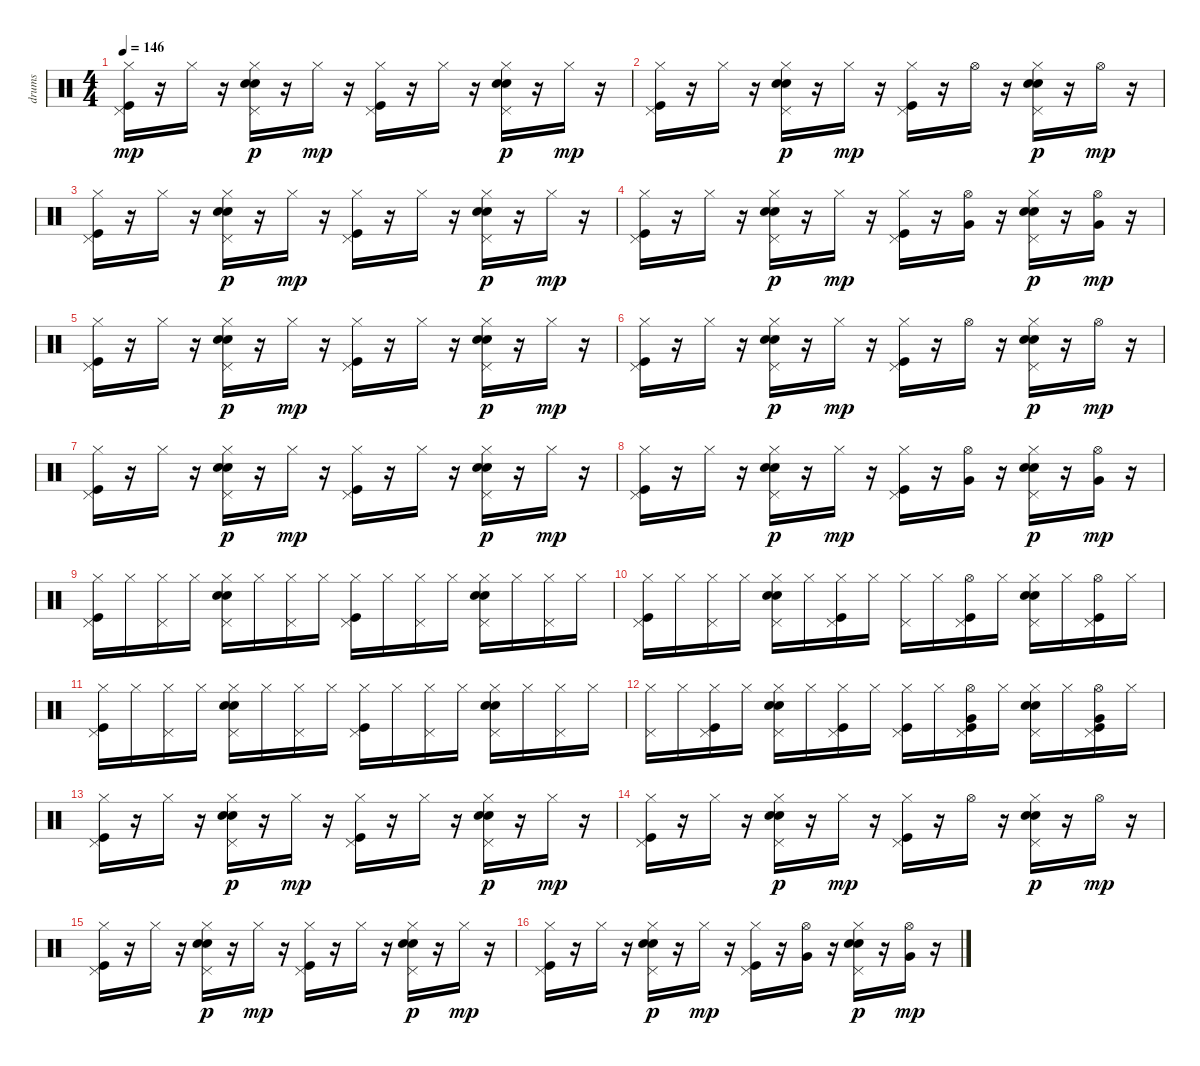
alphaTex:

\track ("drums" "drums") {instrument percussion}
\staff {score}
\articulation defaults
\ts (4 4)
\tempo 146
\clef neutral
\ks c
("Kick (hit)" "Pedal Hi-Hat (hit)" "Hi-Hat (closed)").16{dy mp} r.16 "Hi-Hat (closed)".16 r.16 ("Pedal Hi-Hat (hit)" "Snare (hit) 2" "Hi-Hat (closed)" "Electric Snare (hit)").16{dy p} r.16 "Hi-Hat (closed)".16{dy mp} r.16 ("Kick (hit)" "Pedal Hi-Hat (hit)" "Hi-Hat (closed)").16 r.16 "Hi-Hat (closed)".16 r.16 ("Pedal Hi-Hat (hit)" "Snare (hit) 2" "Hi-Hat (closed)" "Electric Snare (hit)").16{dy p} r.16 "Hi-Hat (closed)".16{dy mp} r.16 |
("Kick (hit)" "Pedal Hi-Hat (hit)" "Hi-Hat (closed)").16 r.16 "Hi-Hat (closed)".16 r.16 ("Pedal Hi-Hat (hit)" "Snare (hit) 2" "Hi-Hat (closed)" "Electric Snare (hit)").16{dy p} r.16 "Hi-Hat (closed)".16{dy mp} r.16 ("Kick (hit)" "Pedal Hi-Hat (hit)" "Hi-Hat (closed)").16 r.16 "Hi-Hat (open)".16 r.16 ("Pedal Hi-Hat (hit)" "Snare (hit) 2" "Hi-Hat (closed)" "Electric Snare (hit)").16{dy p} r.16 "Hi-Hat (open)".16{dy mp} r.16 |
("Kick (hit)" "Pedal Hi-Hat (hit)" "Hi-Hat (closed)").16 r.16 "Hi-Hat (closed)".16 r.16 ("Pedal Hi-Hat (hit)" "Snare (hit) 2" "Hi-Hat (closed)" "Electric Snare (hit)").16{dy p} r.16 "Hi-Hat (closed)".16{dy mp} r.16 ("Kick (hit)" "Pedal Hi-Hat (hit)" "Hi-Hat (closed)").16 r.16 "Hi-Hat (closed)".16 r.16 ("Pedal Hi-Hat (hit)" "Snare (hit) 2" "Hi-Hat (closed)" "Electric Snare (hit)").16{dy p} r.16 "Hi-Hat (closed)".16{dy mp} r.16 |
("Kick (hit)" "Pedal Hi-Hat (hit)" "Hi-Hat (closed)").16 r.16 "Hi-Hat (closed)".16 r.16 ("Pedal Hi-Hat (hit)" "Snare (hit) 2" "Hi-Hat (closed)" "Electric Snare (hit)").16{dy p} r.16 "Hi-Hat (closed)".16{dy mp} r.16 ("Kick (hit)" "Pedal Hi-Hat (hit)" "Hi-Hat (closed)").16 r.16 ("Hi-Hat (open)" "Very Low Tom (hit)").16 r.16 ("Pedal Hi-Hat (hit)" "Snare (hit) 2" "Hi-Hat (closed)" "Electric Snare (hit)").16{dy p} r.16 ("Hi-Hat (open)" "Very Low Tom (hit)").16{dy mp} r.16 |
("Kick (hit)" "Pedal Hi-Hat (hit)" "Hi-Hat (closed)").16 r.16 "Hi-Hat (closed)".16 r.16 ("Pedal Hi-Hat (hit)" "Snare (hit) 2" "Hi-Hat (closed)" "Electric Snare (hit)").16{dy p} r.16 "Hi-Hat (closed)".16{dy mp} r.16 ("Kick (hit)" "Pedal Hi-Hat (hit)" "Hi-Hat (closed)").16 r.16 "Hi-Hat (closed)".16 r.16 ("Pedal Hi-Hat (hit)" "Snare (hit) 2" "Hi-Hat (closed)" "Electric Snare (hit)").16{dy p} r.16 "Hi-Hat (closed)".16{dy mp} r.16 |
("Kick (hit)" "Pedal Hi-Hat (hit)" "Hi-Hat (closed)").16 r.16 "Hi-Hat (closed)".16 r.16 ("Pedal Hi-Hat (hit)" "Snare (hit) 2" "Hi-Hat (closed)" "Electric Snare (hit)").16{dy p} r.16 "Hi-Hat (closed)".16{dy mp} r.16 ("Kick (hit)" "Pedal Hi-Hat (hit)" "Hi-Hat (closed)").16 r.16 "Hi-Hat (open)".16 r.16 ("Pedal Hi-Hat (hit)" "Snare (hit) 2" "Hi-Hat (closed)" "Electric Snare (hit)").16{dy p} r.16 "Hi-Hat (open)".16{dy mp} r.16 |
("Kick (hit)" "Pedal Hi-Hat (hit)" "Hi-Hat (closed)").16 r.16 "Hi-Hat (closed)".16 r.16 ("Pedal Hi-Hat (hit)" "Snare (hit) 2" "Hi-Hat (closed)" "Electric Snare (hit)").16{dy p} r.16 "Hi-Hat (closed)".16{dy mp} r.16 ("Kick (hit)" "Pedal Hi-Hat (hit)" "Hi-Hat (closed)").16 r.16 "Hi-Hat (closed)".16 r.16 ("Pedal Hi-Hat (hit)" "Snare (hit) 2" "Hi-Hat (closed)" "Electric Snare (hit)").16{dy p} r.16 "Hi-Hat (closed)".16{dy mp} r.16 |
("Kick (hit)" "Pedal Hi-Hat (hit)" "Hi-Hat (closed)").16 r.16 "Hi-Hat (closed)".16 r.16 ("Pedal Hi-Hat (hit)" "Snare (hit) 2" "Hi-Hat (closed)" "Electric Snare (hit)").16{dy p} r.16 "Hi-Hat (closed)".16{dy mp} r.16 ("Kick (hit)" "Pedal Hi-Hat (hit)" "Hi-Hat (closed)").16 r.16 ("Hi-Hat (open)" "Very Low Tom (hit)").16 r.16 ("Pedal Hi-Hat (hit)" "Snare (hit) 2" "Hi-Hat (closed)" "Electric Snare (hit)").16{dy p} r.16 ("Hi-Hat (open)" "Very Low Tom (hit)").16{dy mp} r.16 |
("Kick (hit)" "Pedal Hi-Hat (hit)" "Hi-Hat (closed)").16 "Hi-Hat (closed)".16 ("Hi-Hat (closed)" "Pedal Hi-Hat (hit)").16 "Hi-Hat (closed)".16 ("Snare (hit) 2" "Hi-Hat (closed)" "Electric Snare (hit)" "Pedal Hi-Hat (hit)").16 "Hi-Hat (closed)".16 ("Hi-Hat (closed)" "Pedal Hi-Hat (hit)").16 "Hi-Hat (closed)".16 ("Kick (hit)" "Hi-Hat (closed)" "Pedal Hi-Hat (hit)").16 "Hi-Hat (closed)".16 ("Hi-Hat (closed)" "Pedal Hi-Hat (hit)").16 "Hi-Hat (closed)".16 ("Snare (hit) 2" "Hi-Hat (closed)" "Electric Snare (hit)" "Pedal Hi-Hat (hit)").16 "Hi-Hat (closed)".16 ("Hi-Hat (closed)" "Pedal Hi-Hat (hit)").16 "Hi-Hat (closed)".16 |
("Kick (hit)" "Hi-Hat (closed)" "Pedal Hi-Hat (hit)").16 "Hi-Hat (closed)".16 ("Hi-Hat (closed)" "Pedal Hi-Hat (hit)").16 "Hi-Hat (closed)".16 ("Snare (hit) 2" "Hi-Hat (closed)" "Electric Snare (hit)" "Pedal Hi-Hat (hit)").16 "Hi-Hat (closed)".16 ("Hi-Hat (closed)" "Pedal Hi-Hat (hit)" "Kick (hit)").16 "Hi-Hat (closed)".16 ("Hi-Hat (closed)" "Pedal Hi-Hat (hit)").16 "Hi-Hat (closed)".16 ("Hi-Hat (open)" "Pedal Hi-Hat (hit)" "Kick (hit)").16 "Hi-Hat (closed)".16 ("Snare (hit) 2" "Hi-Hat (closed)" "Electric Snare (hit)" "Pedal Hi-Hat (hit)").16 "Hi-Hat (closed)".16 ("Hi-Hat (open)" "Pedal Hi-Hat (hit)" "Kick (hit)").16 "Hi-Hat (closed)".16 |
("Kick (hit)" "Hi-Hat (closed)" "Pedal Hi-Hat (hit)").16 "Hi-Hat (closed)".16 ("Hi-Hat (closed)" "Pedal Hi-Hat (hit)").16 "Hi-Hat (closed)".16 ("Snare (hit) 2" "Hi-Hat (closed)" "Electric Snare (hit)" "Pedal Hi-Hat (hit)").16 "Hi-Hat (closed)".16 ("Hi-Hat (closed)" "Pedal Hi-Hat (hit)").16 "Hi-Hat (closed)".16 ("Kick (hit)" "Hi-Hat (closed)" "Pedal Hi-Hat (hit)").16 "Hi-Hat (closed)".16 ("Hi-Hat (closed)" "Pedal Hi-Hat (hit)").16 "Hi-Hat (closed)".16 ("Snare (hit) 2" "Hi-Hat (closed)" "Electric Snare (hit)" "Pedal Hi-Hat (hit)").16 "Hi-Hat (closed)".16 ("Hi-Hat (closed)" "Pedal Hi-Hat (hit)").16 "Hi-Hat (closed)".16 |
("Hi-Hat (closed)" "Pedal Hi-Hat (hit)").16 "Hi-Hat (closed)".16 ("Hi-Hat (closed)" "Pedal Hi-Hat (hit)" "Kick (hit)").16 "Hi-Hat (closed)".16 ("Snare (hit) 2" "Hi-Hat (closed)" "Electric Snare (hit)" "Pedal Hi-Hat (hit)").16 "Hi-Hat (closed)".16 ("Hi-Hat (closed)" "Pedal Hi-Hat (hit)" "Kick (hit)").16 "Hi-Hat (closed)".16 ("Kick (hit)" "Hi-Hat (closed)" "Pedal Hi-Hat (hit)").16 "Hi-Hat (closed)".16 ("Hi-Hat (open)" "Very Low Tom (hit)" "Pedal Hi-Hat (hit)" "Kick (hit)").16 "Hi-Hat (closed)".16 ("Snare (hit) 2" "Hi-Hat (closed)" "Electric Snare (hit)" "Pedal Hi-Hat (hit)").16 "Hi-Hat (closed)".16 ("Hi-Hat (open)" "Very Low Tom (hit)" "Pedal Hi-Hat (hit)" "Kick (hit)").16 "Hi-Hat (closed)".16 |
("Kick (hit)" "Pedal Hi-Hat (hit)" "Hi-Hat (closed)").16 r.16 "Hi-Hat (closed)".16 r.16 ("Pedal Hi-Hat (hit)" "Snare (hit) 2" "Hi-Hat (closed)" "Electric Snare (hit)").16{dy p} r.16 "Hi-Hat (closed)".16{dy mp} r.16 ("Kick (hit)" "Pedal Hi-Hat (hit)" "Hi-Hat (closed)").16 r.16 "Hi-Hat (closed)".16 r.16 ("Pedal Hi-Hat (hit)" "Snare (hit) 2" "Hi-Hat (closed)" "Electric Snare (hit)").16{dy p} r.16 "Hi-Hat (closed)".16{dy mp} r.16 |
("Kick (hit)" "Pedal Hi-Hat (hit)" "Hi-Hat (closed)").16 r.16 "Hi-Hat (closed)".16 r.16 ("Pedal Hi-Hat (hit)" "Snare (hit) 2" "Hi-Hat (closed)" "Electric Snare (hit)").16{dy p} r.16 "Hi-Hat (closed)".16{dy mp} r.16 ("Kick (hit)" "Pedal Hi-Hat (hit)" "Hi-Hat (closed)").16 r.16 "Hi-Hat (open)".16 r.16 ("Pedal Hi-Hat (hit)" "Snare (hit) 2" "Hi-Hat (closed)" "Electric Snare (hit)").16{dy p} r.16 "Hi-Hat (open)".16{dy mp} r.16 |
("Kick (hit)" "Pedal Hi-Hat (hit)" "Hi-Hat (closed)").16 r.16 "Hi-Hat (closed)".16 r.16 ("Pedal Hi-Hat (hit)" "Snare (hit) 2" "Hi-Hat (closed)" "Electric Snare (hit)").16{dy p} r.16 "Hi-Hat (closed)".16{dy mp} r.16 ("Kick (hit)" "Pedal Hi-Hat (hit)" "Hi-Hat (closed)").16 r.16 "Hi-Hat (closed)".16 r.16 ("Pedal Hi-Hat (hit)" "Snare (hit) 2" "Hi-Hat (closed)" "Electric Snare (hit)").16{dy p} r.16 "Hi-Hat (closed)".16{dy mp} r.16 |
("Kick (hit)" "Pedal Hi-Hat (hit)" "Hi-Hat (closed)").16 r.16 "Hi-Hat (closed)".16 r.16 ("Pedal Hi-Hat (hit)" "Snare (hit) 2" "Hi-Hat (closed)" "Electric Snare (hit)").16{dy p} r.16 "Hi-Hat (closed)".16{dy mp} r.16 ("Kick (hit)" "Pedal Hi-Hat (hit)" "Hi-Hat (closed)").16 r.16 ("Hi-Hat (open)" "Very Low Tom (hit)").16 r.16 ("Pedal Hi-Hat (hit)" "Snare (hit) 2" "Hi-Hat (closed)" "Electric Snare (hit)").16{dy p} r.16 ("Hi-Hat (open)" "Very Low Tom (hit)").16{dy mp} r.16
